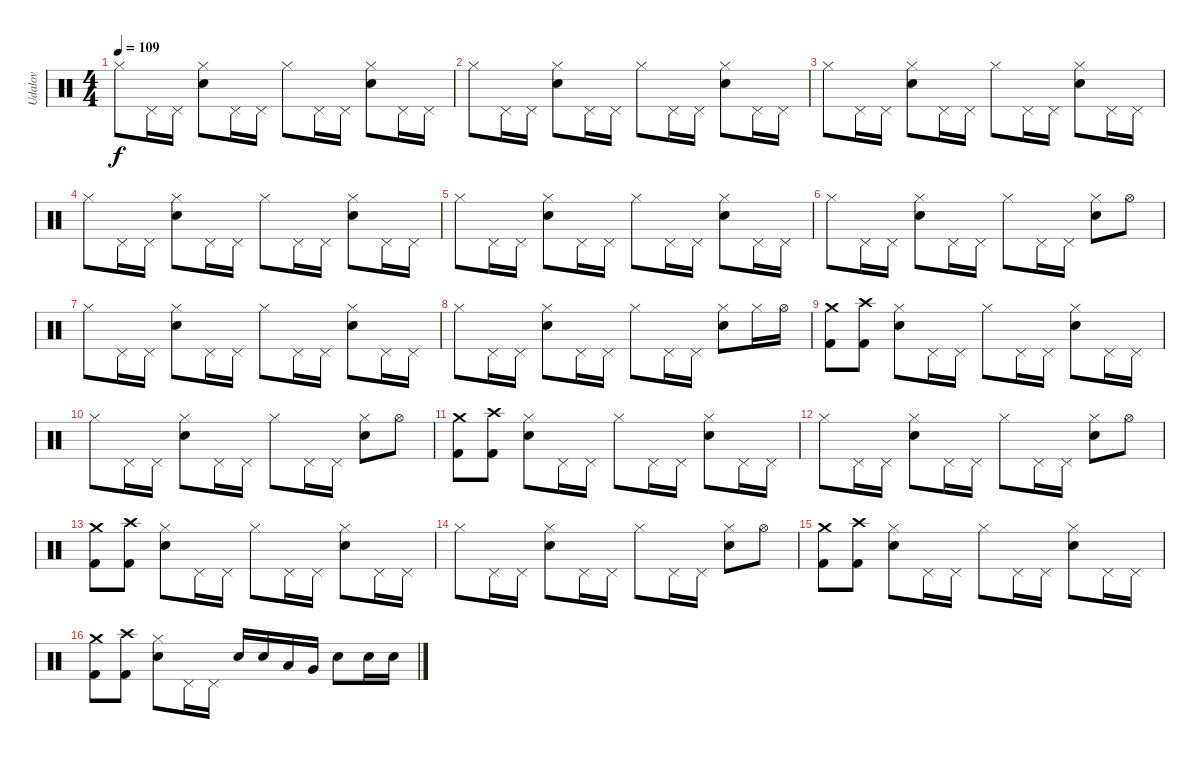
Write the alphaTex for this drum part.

\track ("Udalov" "Udalov") {instrument percussion}
\staff {score}
\articulation defaults
\ts (4 4)
\tempo 109
\clef neutral
\ks c "Hi-Hat (closed)".8{dy f} "Pedal Hi-Hat (hit)".16 "Pedal Hi-Hat (hit)".16
("Snare (hit) 2" "Hi-Hat (closed)").8 "Pedal Hi-Hat (hit)".16 "Pedal Hi-Hat (hit)".16 "Hi-Hat (closed)".8 "Pedal Hi-Hat (hit)".16 "Pedal Hi-Hat (hit)".16 ("Snare (hit) 2" "Hi-Hat (closed)").8 "Pedal Hi-Hat (hit)".16 "Pedal Hi-Hat (hit)".16 |
"Hi-Hat (closed)".8 "Pedal Hi-Hat (hit)".16 "Pedal Hi-Hat (hit)".16 ("Snare (hit) 2" "Hi-Hat (closed)").8 "Pedal Hi-Hat (hit)".16 "Pedal Hi-Hat (hit)".16 "Hi-Hat (closed)".8 "Pedal Hi-Hat (hit)".16 "Pedal Hi-Hat (hit)".16 ("Snare (hit) 2" "Hi-Hat (closed)").8 "Pedal Hi-Hat (hit)".16 "Pedal Hi-Hat (hit)".16 |
"Hi-Hat (closed)".8 "Pedal Hi-Hat (hit)".16 "Pedal Hi-Hat (hit)".16 ("Snare (hit) 2" "Hi-Hat (closed)").8 "Pedal Hi-Hat (hit)".16 "Pedal Hi-Hat (hit)".16 "Hi-Hat (closed)".8 "Pedal Hi-Hat (hit)".16 "Pedal Hi-Hat (hit)".16 ("Snare (hit) 2" "Hi-Hat (closed)").8 "Pedal Hi-Hat (hit)".16 "Pedal Hi-Hat (hit)".16 |
"Hi-Hat (closed)".8 "Pedal Hi-Hat (hit)".16 "Pedal Hi-Hat (hit)".16 ("Snare (hit) 2" "Hi-Hat (closed)").8 "Pedal Hi-Hat (hit)".16 "Pedal Hi-Hat (hit)".16 "Hi-Hat (closed)".8 "Pedal Hi-Hat (hit)".16 "Pedal Hi-Hat (hit)".16 ("Snare (hit) 2" "Hi-Hat (closed)").8 "Pedal Hi-Hat (hit)".16 "Pedal Hi-Hat (hit)".16 |
"Hi-Hat (closed)".8 "Pedal Hi-Hat (hit)".16 "Pedal Hi-Hat (hit)".16 ("Snare (hit) 2" "Hi-Hat (closed)").8 "Pedal Hi-Hat (hit)".16 "Pedal Hi-Hat (hit)".16 "Hi-Hat (closed)".8 "Pedal Hi-Hat (hit)".16 "Pedal Hi-Hat (hit)".16 ("Snare (hit) 2" "Hi-Hat (closed)").8 "Pedal Hi-Hat (hit)".16 "Pedal Hi-Hat (hit)".16 |
"Hi-Hat (closed)".8 "Pedal Hi-Hat (hit)".16 "Pedal Hi-Hat (hit)".16 ("Snare (hit) 2" "Hi-Hat (closed)").8 "Pedal Hi-Hat (hit)".16 "Pedal Hi-Hat (hit)".16 "Hi-Hat (closed)".8 "Pedal Hi-Hat (hit)".16 "Pedal Hi-Hat (hit)".16 ("Snare (hit) 2" "Hi-Hat (closed)").8 "Hi-Hat (open)".8 |
"Hi-Hat (closed)".8 "Pedal Hi-Hat (hit)".16 "Pedal Hi-Hat (hit)".16 ("Snare (hit) 2" "Hi-Hat (closed)").8 "Pedal Hi-Hat (hit)".16 "Pedal Hi-Hat (hit)".16 "Hi-Hat (closed)".8 "Pedal Hi-Hat (hit)".16 "Pedal Hi-Hat (hit)".16 ("Snare (hit) 2" "Hi-Hat (closed)").8 "Pedal Hi-Hat (hit)".16 "Pedal Hi-Hat (hit)".16 |
"Hi-Hat (closed)".8 "Pedal Hi-Hat (hit)".16 "Pedal Hi-Hat (hit)".16 ("Snare (hit) 2" "Hi-Hat (closed)").8 "Pedal Hi-Hat (hit)".16 "Pedal Hi-Hat (hit)".16 "Hi-Hat (closed)".8 "Pedal Hi-Hat (hit)".16 "Pedal Hi-Hat (hit)".16 ("Snare (hit) 2" "Hi-Hat (closed)").8 "Hi-Hat (closed)".16 "Hi-Hat (open)".16 |
("Crash medium (hit)" "Kick (hit) 2").8 ("Crash high (hit)" "Kick (hit) 2").8 ("Hi-Hat (closed)" "Snare (hit) 2").8 "Pedal Hi-Hat (hit)".16 "Pedal Hi-Hat (hit)".16 "Hi-Hat (closed)".8 "Pedal Hi-Hat (hit)".16 "Pedal Hi-Hat (hit)".16 ("Snare (hit) 2" "Hi-Hat (closed)").8 "Pedal Hi-Hat (hit)".16 "Pedal Hi-Hat (hit)".16 |
"Hi-Hat (closed)".8 "Pedal Hi-Hat (hit)".16 "Pedal Hi-Hat (hit)".16 ("Snare (hit) 2" "Hi-Hat (closed)").8 "Pedal Hi-Hat (hit)".16 "Pedal Hi-Hat (hit)".16 "Hi-Hat (closed)".8 "Pedal Hi-Hat (hit)".16 "Pedal Hi-Hat (hit)".16 ("Snare (hit) 2" "Hi-Hat (closed)").8 "Hi-Hat (open)".8 |
("Crash medium (hit)" "Kick (hit) 2").8 ("Crash high (hit)" "Kick (hit) 2").8 ("Hi-Hat (closed)" "Snare (hit) 2").8 "Pedal Hi-Hat (hit)".16 "Pedal Hi-Hat (hit)".16 "Hi-Hat (closed)".8 "Pedal Hi-Hat (hit)".16 "Pedal Hi-Hat (hit)".16 ("Snare (hit) 2" "Hi-Hat (closed)").8 "Pedal Hi-Hat (hit)".16 "Pedal Hi-Hat (hit)".16 |
"Hi-Hat (closed)".8 "Pedal Hi-Hat (hit)".16 "Pedal Hi-Hat (hit)".16 ("Snare (hit) 2" "Hi-Hat (closed)").8 "Pedal Hi-Hat (hit)".16 "Pedal Hi-Hat (hit)".16 "Hi-Hat (closed)".8 "Pedal Hi-Hat (hit)".16 "Pedal Hi-Hat (hit)".16 ("Snare (hit) 2" "Hi-Hat (closed)").8 "Hi-Hat (open)".8 |
("Crash medium (hit)" "Kick (hit) 2").8 ("Crash high (hit)" "Kick (hit) 2").8 ("Hi-Hat (closed)" "Snare (hit) 2").8 "Pedal Hi-Hat (hit)".16 "Pedal Hi-Hat (hit)".16 "Hi-Hat (closed)".8 "Pedal Hi-Hat (hit)".16 "Pedal Hi-Hat (hit)".16 ("Snare (hit) 2" "Hi-Hat (closed)").8 "Pedal Hi-Hat (hit)".16 "Pedal Hi-Hat (hit)".16 |
"Hi-Hat (closed)".8 "Pedal Hi-Hat (hit)".16 "Pedal Hi-Hat (hit)".16 ("Snare (hit) 2" "Hi-Hat (closed)").8 "Pedal Hi-Hat (hit)".16 "Pedal Hi-Hat (hit)".16 "Hi-Hat (closed)".8 "Pedal Hi-Hat (hit)".16 "Pedal Hi-Hat (hit)".16 ("Snare (hit) 2" "Hi-Hat (closed)").8 "Hi-Hat (open)".8 |
("Crash medium (hit)" "Kick (hit) 2").8 ("Crash high (hit)" "Kick (hit) 2").8 ("Hi-Hat (closed)" "Snare (hit) 2").8 "Pedal Hi-Hat (hit)".16 "Pedal Hi-Hat (hit)".16 "Hi-Hat (closed)".8 "Pedal Hi-Hat (hit)".16 "Pedal Hi-Hat (hit)".16 ("Snare (hit) 2" "Hi-Hat (closed)").8 "Pedal Hi-Hat (hit)".16 "Pedal Hi-Hat (hit)".16 |
("Kick (hit) 2" "Crash medium (hit)").8 ("Kick (hit) 2" "Crash high (hit)").8 ("Hi-Hat (closed)" "Snare (hit) 2").8 "Pedal Hi-Hat (hit)".16 "Pedal Hi-Hat (hit)".16 "Snare (hit) 2".16 "Snare (hit) 2".16 "Low Tom (hit)".16 "Very Low Tom (hit)".16 "Snare (hit) 2".8 "Snare (hit) 2".16 "Snare (hit) 2".16
